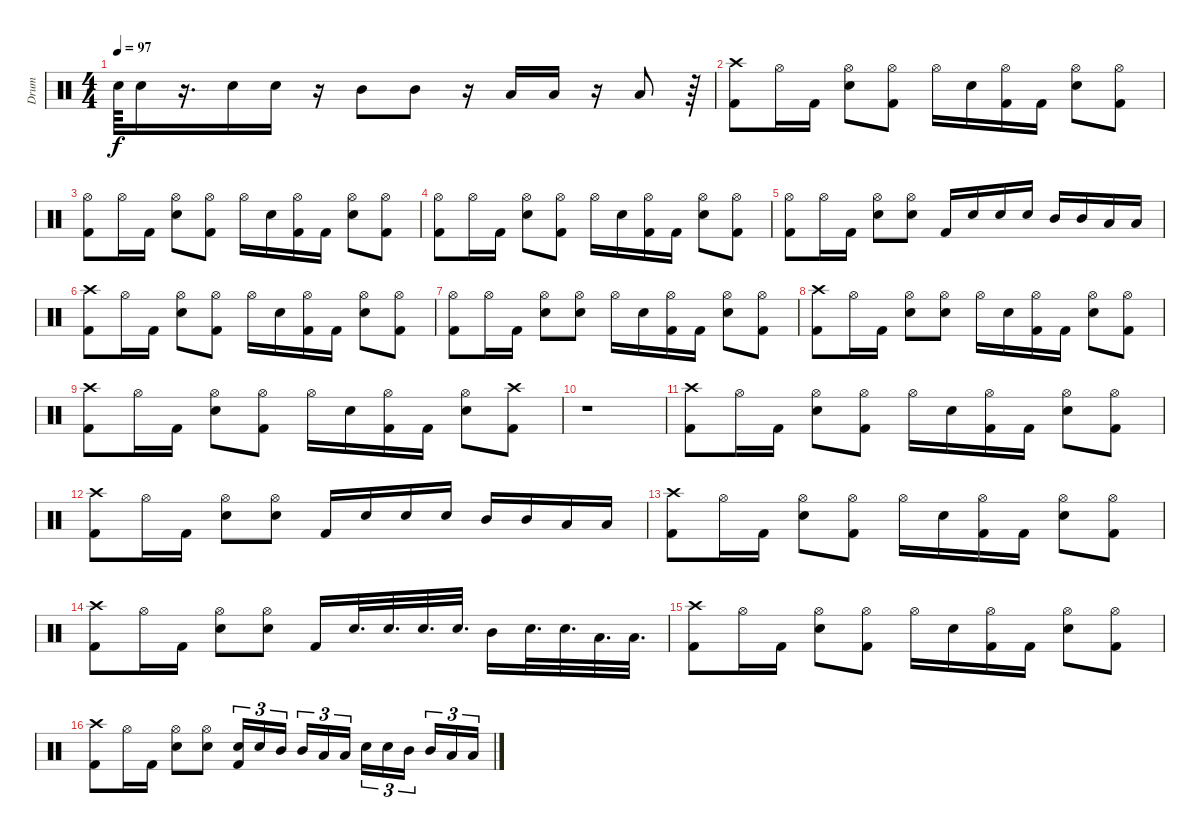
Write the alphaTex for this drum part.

\track ("Drum" "Drum") {instrument percussion}
\staff {score}
\articulation defaults
\ts (4 4)
\tempo 97
\clef neutral
\ks c "Snare (hit) 2".64{dy f} "Snare (hit) 2".16
r.16{d} "Snare (hit) 2".16 "Snare (hit) 2".16 r.16 "Mid Tom (hit)".8 "Mid Tom (hit)".8 r.16 "Low Tom (hit)".16 "Low Tom (hit)".16 r.16 "Low Tom (hit)".8 r.64 |
("Crash high (hit)" "Kick (hit) 2").8 "Hi-Hat (open)".16 "Kick (hit) 2".16 ("Hi-Hat (open)" "Snare (hit) 2").8 ("Hi-Hat (open)" "Kick (hit) 2").8 "Hi-Hat (open)".16 "Snare (hit) 2".16 ("Hi-Hat (open)" "Kick (hit) 2").16 "Kick (hit) 2".16 ("Hi-Hat (open)" "Snare (hit) 2").8 ("Hi-Hat (open)" "Kick (hit) 2").8 |
("Hi-Hat (open)" "Kick (hit) 2").8 "Hi-Hat (open)".16 "Kick (hit) 2".16 ("Hi-Hat (open)" "Snare (hit) 2").8 ("Hi-Hat (open)" "Kick (hit) 2").8 "Hi-Hat (open)".16 "Snare (hit) 2".16 ("Hi-Hat (open)" "Kick (hit) 2").16 "Kick (hit) 2".16 ("Hi-Hat (open)" "Snare (hit) 2").8 ("Hi-Hat (open)" "Kick (hit) 2").8 |
("Hi-Hat (open)" "Kick (hit) 2").8 "Hi-Hat (open)".16 "Kick (hit) 2".16 ("Hi-Hat (open)" "Snare (hit) 2").8 ("Hi-Hat (open)" "Kick (hit) 2").8 "Hi-Hat (open)".16 "Snare (hit) 2".16 ("Hi-Hat (open)" "Kick (hit) 2").16 "Kick (hit) 2".16 ("Hi-Hat (open)" "Snare (hit) 2").8 ("Hi-Hat (open)" "Kick (hit) 2").8 |
("Hi-Hat (open)" "Kick (hit) 2").8 "Hi-Hat (open)".16 "Kick (hit) 2".16 ("Hi-Hat (open)" "Snare (hit) 2").8 ("Hi-Hat (open)" "Snare (hit) 2").8 "Kick (hit) 2".16 "Snare (hit) 2".16 "Snare (hit) 2".16 "Snare (hit) 2".16 "Mid Tom (hit)".16 "Mid Tom (hit)".16 "Low Tom (hit)".16 "Low Tom (hit)".16 |
("Crash high (hit)" "Kick (hit) 2").8 "Hi-Hat (open)".16 "Kick (hit) 2".16 ("Hi-Hat (open)" "Snare (hit) 2").8 ("Hi-Hat (open)" "Kick (hit) 2").8 "Hi-Hat (open)".16 "Snare (hit) 2".16 ("Hi-Hat (open)" "Kick (hit) 2").16 "Kick (hit) 2".16 ("Hi-Hat (open)" "Snare (hit) 2").8 ("Hi-Hat (open)" "Kick (hit) 2").8 |
("Hi-Hat (open)" "Kick (hit) 2").8 "Hi-Hat (open)".16 "Kick (hit) 2".16 ("Hi-Hat (open)" "Snare (hit) 2").8 ("Hi-Hat (open)" "Snare (hit) 2").8 "Hi-Hat (open)".16 "Snare (hit) 2".16 ("Hi-Hat (open)" "Kick (hit) 2").16 "Kick (hit) 2".16 ("Hi-Hat (open)" "Snare (hit) 2").8 ("Hi-Hat (open)" "Kick (hit) 2").8 |
("Crash high (hit)" "Kick (hit) 2").8 "Hi-Hat (open)".16 "Kick (hit) 2".16 ("Hi-Hat (open)" "Snare (hit) 2").8 ("Hi-Hat (open)" "Snare (hit) 2").8 "Hi-Hat (open)".16 "Snare (hit) 2".16 ("Hi-Hat (open)" "Kick (hit) 2").16 "Kick (hit) 2".16 ("Hi-Hat (open)" "Snare (hit) 2").8 ("Hi-Hat (open)" "Kick (hit) 2").8 |
("Crash high (hit)" "Kick (hit) 2").8 "Hi-Hat (open)".16 "Kick (hit) 2".16 ("Hi-Hat (open)" "Snare (hit) 2").8 ("Hi-Hat (open)" "Kick (hit) 2").8 "Hi-Hat (open)".16 "Snare (hit) 2".16 ("Hi-Hat (open)" "Kick (hit) 2").16 "Kick (hit) 2".16 ("Hi-Hat (open)" "Snare (hit) 2").8 ("Crash high (hit)" "Kick (hit) 2").8 |
r.1 |
("Crash high (hit)" "Kick (hit) 2").8 "Hi-Hat (open)".16 "Kick (hit) 2".16 ("Hi-Hat (open)" "Snare (hit) 2").8 ("Hi-Hat (open)" "Kick (hit) 2").8 "Hi-Hat (open)".16 "Snare (hit) 2".16 ("Hi-Hat (open)" "Kick (hit) 2").16 "Kick (hit) 2".16 ("Hi-Hat (open)" "Snare (hit) 2").8 ("Hi-Hat (open)" "Kick (hit) 2").8 |
("Crash high (hit)" "Kick (hit) 2").8 "Hi-Hat (open)".16 "Kick (hit) 2".16 ("Hi-Hat (open)" "Snare (hit) 2").8 ("Hi-Hat (open)" "Snare (hit) 2").8 "Kick (hit) 2".16 "Snare (hit) 2".16 "Snare (hit) 2".16 "Snare (hit) 2".16 "Mid Tom (hit)".16 "Mid Tom (hit)".16 "Low Tom (hit)".16 "Low Tom (hit)".16 |
("Crash high (hit)" "Kick (hit) 2").8 "Hi-Hat (open)".16 "Kick (hit) 2".16 ("Hi-Hat (open)" "Snare (hit) 2").8 ("Hi-Hat (open)" "Kick (hit) 2").8 "Hi-Hat (open)".16 "Snare (hit) 2".16 ("Hi-Hat (open)" "Kick (hit) 2").16 "Kick (hit) 2".16 ("Hi-Hat (open)" "Snare (hit) 2").8 ("Hi-Hat (open)" "Kick (hit) 2").8 |
("Crash high (hit)" "Kick (hit) 2").8 "Hi-Hat (open)".16 "Kick (hit) 2".16 ("Hi-Hat (open)" "Snare (hit) 2").8 ("Hi-Hat (open)" "Snare (hit) 2").8 "Kick (hit) 2".16 "Snare (hit) 2".32{d} "Snare (hit) 2".32{d} "Snare (hit) 2".32{d} "Snare (hit) 2".32{d} "Mid Tom (hit)".16 "Snare (hit) 2".32{d} "Snare (hit) 2".32{d} "Low Tom (hit)".32{d} "Low Tom (hit)".32{d} |
("Crash high (hit)" "Kick (hit) 2").8 "Hi-Hat (open)".16 "Kick (hit) 2".16 ("Hi-Hat (open)" "Snare (hit) 2").8 ("Hi-Hat (open)" "Kick (hit) 2").8 "Hi-Hat (open)".16 "Snare (hit) 2".16 ("Hi-Hat (open)" "Kick (hit) 2").16 "Kick (hit) 2".16 ("Hi-Hat (open)" "Snare (hit) 2").8 ("Hi-Hat (open)" "Kick (hit) 2").8 |
("Crash high (hit)" "Kick (hit) 2").8 "Hi-Hat (open)".16 "Kick (hit) 2".16 ("Hi-Hat (open)" "Snare (hit) 2").8 ("Hi-Hat (open)" "Snare (hit) 2").8 ("Snare (hit) 2" "Kick (hit) 2").16{tu (3 2)} "Snare (hit) 2".16{tu (3 2)} "Mid Tom (hit)".16{tu (3 2) beam splitsecondary} "Mid Tom (hit)".16{tu (3 2)} "Low Tom (hit)".16{tu (3 2)} "Low Tom (hit)".16{tu (3 2)} "Snare (hit) 2".16{tu (3 2)} "Snare (hit) 2".16{tu (3 2)} "Mid Tom (hit)".16{tu (3 2) beam splitsecondary} "Mid Tom (hit)".16{tu (3 2)} "Low Tom (hit)".16{tu (3 2)} "Low Tom (hit)".16{tu (3 2)}
